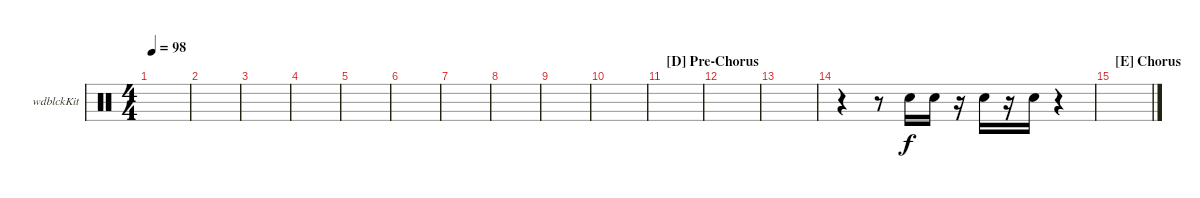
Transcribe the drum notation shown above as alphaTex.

\defaultSystemsLayout 4
\bracketExtendMode groupsimilarinstruments
\firstSystemTrackNameOrientation horizontal
\otherSystemsTrackNameOrientation horizontal
\track ("Woodblock" "wdblckKit") {instrument percussion}
\staff {score}
\articulation defaults
\ts (4 4)
\tempo 98
\clef neutral
\scale
0.333333
\ks c
|
\scale
0.333333 |
\scale
0.333333 |
\scale
0.333333 |
\scale
0.333333 |
\scale
0.333333 |
\scale
0.333333 |
\scale
0.333333 |
\scale
0.333333 |
\scale
0.333333 |
\section ("D" "Pre-Chorus")
\scale
0.333333 |
\scale
0.333333 |
\scale
0.333333 |
\scale
0.333333 r.4 r.8 "Snare (hit) 2".16 "Snare (hit) 2".16 r.16 "Snare (hit) 2".16 r.16 "Snare (hit) 2".16 r.4 |
\section ("E" "Chorus")
\scale
0.333333 |
\scale
0.333333
